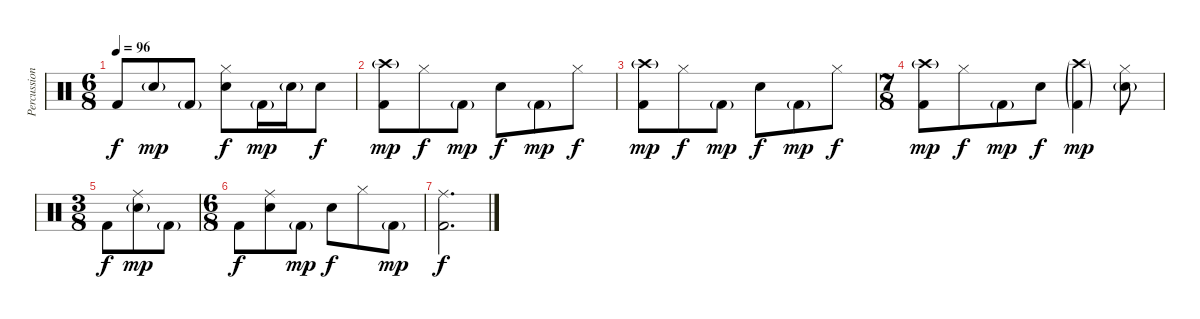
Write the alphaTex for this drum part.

\track ("Percussion" "Percussion") {instrument percussion}
\staff {score}
\articulation defaults
\ts (6 8)
\tempo 96
\clef neutral
\ks c "Kick (hit) 2".8{dy f} "Snare (hit) 2"{g}.8{dy mp} "Kick (hit) 2"{g}.8
("Snare (hit) 2" "Hi-Hat (closed)").8{dy f} "Kick (hit) 2"{g}.16{dy mp} "Snare (hit) 2"{g}.16 "Snare (hit) 2".8{dy f} |
("Crash high (hit)"{g} "Kick (hit) 2").8{dy mp} "Hi-Hat (closed)".8{dy f} "Kick (hit) 2"{g}.8{dy mp} "Snare (hit) 2".8{dy f} "Kick (hit) 2"{g}.8{dy mp} "Hi-Hat (closed)".8{dy f} |
("Crash high (hit)"{g} "Kick (hit) 2").8{dy mp} "Hi-Hat (closed)".8{dy f} "Kick (hit) 2"{g}.8{dy mp} "Snare (hit) 2".8{dy f} "Kick (hit) 2"{g}.8{dy mp} "Hi-Hat (closed)".8{dy f} |
\ts (7 8)
("Crash high (hit)"{g} "Kick (hit) 2").8{dy mp} "Hi-Hat (closed)".8{dy f} "Kick (hit) 2"{g}.8{dy mp} "Snare (hit) 2".8{dy f} ("Crash high (hit)"{g} "Kick (hit) 2"{g}).4{dy mp} ("Snare (hit) 2"{g} "Hi-Hat (closed)").8 |
\ts (3 8)
"Kick (hit) 2".8{dy f} ("Ride (middle)" "Snare (hit) 2"{g}).8{dy mp} "Kick (hit) 2"{g}.8 |
\ts (6 8)
"Kick (hit) 2".8{dy f} ("Ride (middle)" "Snare (hit) 2").8 "Kick (hit) 2"{g}.8{dy mp} "Snare (hit) 2".8{dy f} "Hi-Hat (closed)".8 "Kick (hit) 2"{g}.8{dy mp} |
("Ride (middle)" "Kick (hit) 2").2{d dy f}
